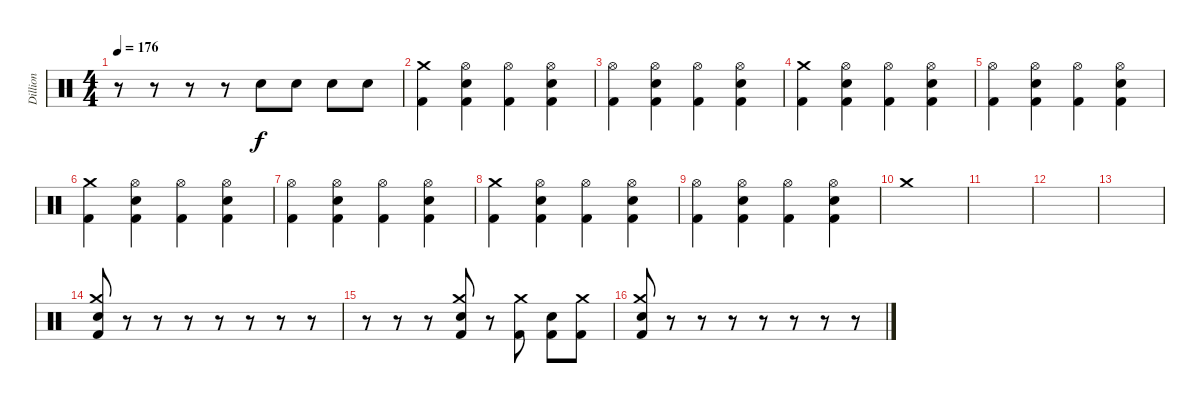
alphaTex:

\track ("Dillion" "Dillion") {instrument percussion}
\staff {score}
\articulation defaults
\ts (4 4)
\tempo 176
\clef neutral
\ks c
r.8{dy f} r.8 r.8 r.8 "Electric Snare (hit)".8 "Electric Snare (hit)".8 "Electric Snare (hit)".8 "Electric Snare (hit)".8 |
("Crash medium (hit)" "Kick (hit) 2").4 ("Hi-Hat (open)" "Electric Snare (hit)" "Kick (hit) 2").4 ("Hi-Hat (open)" "Kick (hit) 2").4 ("Hi-Hat (open)" "Electric Snare (hit)" "Kick (hit) 2").4 |
("Hi-Hat (open)" "Kick (hit) 2").4 ("Hi-Hat (open)" "Electric Snare (hit)" "Kick (hit) 2").4 ("Hi-Hat (open)" "Kick (hit) 2").4 ("Hi-Hat (open)" "Electric Snare (hit)" "Kick (hit) 2").4 |
("Crash medium (hit)" "Kick (hit) 2").4 ("Hi-Hat (open)" "Electric Snare (hit)" "Kick (hit) 2").4 ("Hi-Hat (open)" "Kick (hit) 2").4 ("Hi-Hat (open)" "Electric Snare (hit)" "Kick (hit) 2").4 |
("Hi-Hat (open)" "Kick (hit) 2").4 ("Hi-Hat (open)" "Electric Snare (hit)" "Kick (hit) 2").4 ("Hi-Hat (open)" "Kick (hit) 2").4 ("Hi-Hat (open)" "Electric Snare (hit)" "Kick (hit) 2").4 |
("Crash medium (hit)" "Kick (hit) 2").4 ("Hi-Hat (open)" "Electric Snare (hit)" "Kick (hit) 2").4 ("Hi-Hat (open)" "Kick (hit) 2").4 ("Hi-Hat (open)" "Electric Snare (hit)" "Kick (hit) 2").4 |
("Hi-Hat (open)" "Kick (hit) 2").4 ("Hi-Hat (open)" "Electric Snare (hit)" "Kick (hit) 2").4 ("Hi-Hat (open)" "Kick (hit) 2").4 ("Hi-Hat (open)" "Electric Snare (hit)" "Kick (hit) 2").4 |
("Crash medium (hit)" "Kick (hit) 2").4 ("Hi-Hat (open)" "Electric Snare (hit)" "Kick (hit) 2").4 ("Hi-Hat (open)" "Kick (hit) 2").4 ("Hi-Hat (open)" "Electric Snare (hit)" "Kick (hit) 2").4 |
("Hi-Hat (open)" "Kick (hit) 2").4 ("Hi-Hat (open)" "Electric Snare (hit)" "Kick (hit) 2").4 ("Hi-Hat (open)" "Kick (hit) 2").4 ("Hi-Hat (open)" "Electric Snare (hit)" "Kick (hit) 2").4 |
"Crash medium (hit)".1 |
|
|
|
("Crash medium (hit)" "Electric Snare (hit)" "Kick (hit) 2").8 r.8 r.8 r.8 r.8 r.8 r.8 r.8 |
r.8 r.8 r.8 ("Crash medium (hit)" "Electric Snare (hit)" "Kick (hit) 2").8 r.8 ("Crash medium (hit)" "Kick (hit) 2").8 ("Electric Snare (hit)" "Kick (hit) 2").8 ("Crash medium (hit)" "Kick (hit) 2").8 |
("Crash medium (hit)" "Electric Snare (hit)" "Kick (hit) 2").8 r.8 r.8 r.8 r.8 r.8 r.8 r.8
